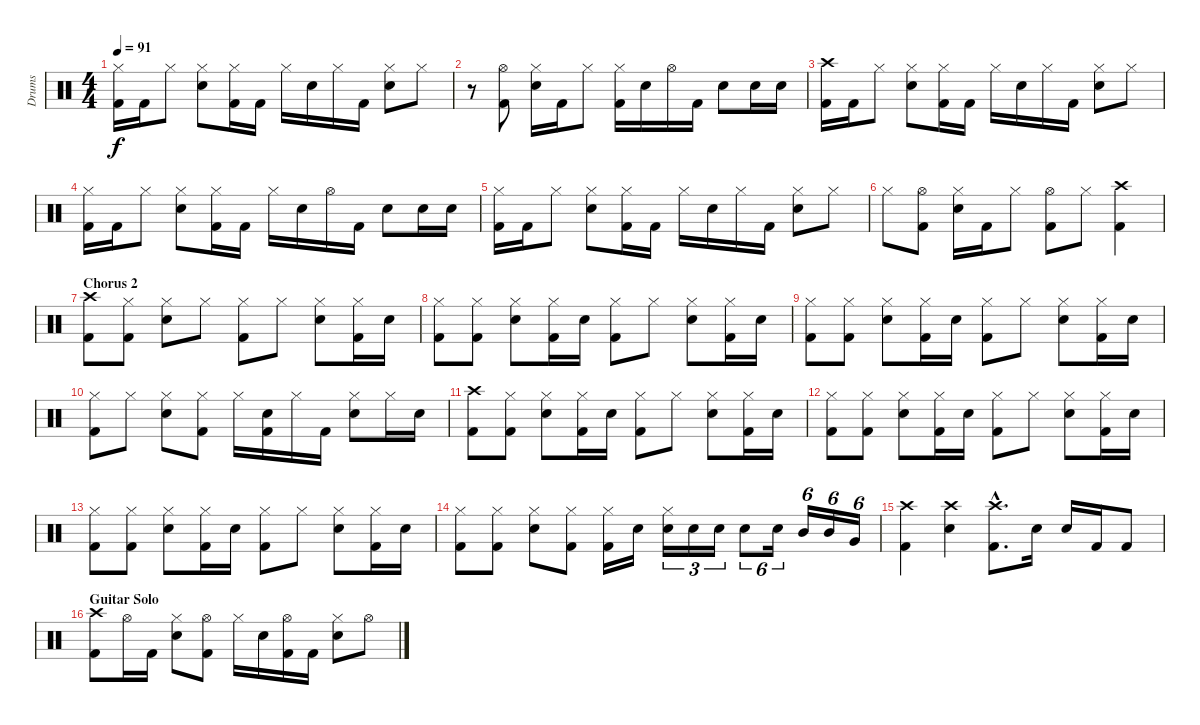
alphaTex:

\track ("Drums" "Drums") {instrument percussion}
\staff {score}
\articulation defaults
\ts (4 4)
\tempo 91
\clef neutral
\ks c
("Hi-Hat (closed)" "Kick (hit) 2").16{dy f} "Kick (hit) 2".16 "Hi-Hat (closed)".8 ("Hi-Hat (closed)" "Electric Snare (hit)").8 ("Hi-Hat (closed)" "Kick (hit) 2").16 "Kick (hit) 2".16 "Hi-Hat (closed)".16 "Electric Snare (hit)".16 "Hi-Hat (closed)".16 "Kick (hit) 2".16 ("Hi-Hat (closed)" "Electric Snare (hit)").8 "Hi-Hat (closed)".8 |
r.8 ("Hi-Hat (open)" "Kick (hit) 2").8 ("Hi-Hat (closed)" "Electric Snare (hit)").16 "Kick (hit) 2".16 "Hi-Hat (closed)".8 ("Hi-Hat (closed)" "Kick (hit) 2").16 "Electric Snare (hit)".16 "Hi-Hat (open)".16 "Kick (hit) 2".16 "Electric Snare (hit)".8 "Electric Snare (hit)".16 "Electric Snare (hit)".16 |
("Crash high (hit)" "Kick (hit) 2").16 "Kick (hit) 2".16 "Hi-Hat (closed)".8 ("Hi-Hat (closed)" "Electric Snare (hit)").8 ("Hi-Hat (closed)" "Kick (hit) 2").16 "Kick (hit) 2".16 "Hi-Hat (closed)".16 "Electric Snare (hit)".16 "Hi-Hat (closed)".16 "Kick (hit) 2".16 ("Hi-Hat (closed)" "Electric Snare (hit)").8 "Hi-Hat (closed)".8 |
("Hi-Hat (closed)" "Kick (hit) 2").16 "Kick (hit) 2".16 "Hi-Hat (closed)".8 ("Hi-Hat (closed)" "Electric Snare (hit)").8 ("Hi-Hat (closed)" "Kick (hit) 2").16 "Kick (hit) 2".16 "Hi-Hat (closed)".16 "Electric Snare (hit)".16 "Hi-Hat (open)".16 "Kick (hit) 2".16 "Electric Snare (hit)".8 "Electric Snare (hit)".16 "Electric Snare (hit)".16 |
("Hi-Hat (closed)" "Kick (hit) 2").16 "Kick (hit) 2".16 "Hi-Hat (closed)".8 ("Hi-Hat (closed)" "Electric Snare (hit)").8 ("Hi-Hat (closed)" "Kick (hit) 2").16 "Kick (hit) 2".16 "Hi-Hat (closed)".16 "Electric Snare (hit)".16 "Hi-Hat (closed)".16 "Kick (hit) 2".16 ("Hi-Hat (closed)" "Electric Snare (hit)").8 "Hi-Hat (closed)".8 |
"Hi-Hat (closed)".8 ("Hi-Hat (open)" "Kick (hit) 2").8 ("Hi-Hat (closed)" "Electric Snare (hit)").16 "Kick (hit) 2".16 "Hi-Hat (closed)".8 ("Hi-Hat (open)" "Kick (hit) 2").8 "Hi-Hat (closed)".8 ("Crash high (hit)" "Kick (hit) 2").4 |
\section ("" "Chorus 2")
("Crash high (hit)" "Kick (hit) 2").8 ("Hi-Hat (closed)" "Kick (hit) 2").8 ("Hi-Hat (closed)" "Electric Snare (hit)").8 "Hi-Hat (closed)".8 ("Hi-Hat (closed)" "Kick (hit) 2").8 "Hi-Hat (closed)".8 ("Hi-Hat (closed)" "Electric Snare (hit)").8 ("Hi-Hat (closed)" "Kick (hit) 2").16 "Electric Snare (hit)".16 |
("Hi-Hat (closed)" "Kick (hit) 2").8 ("Hi-Hat (closed)" "Kick (hit) 2").8 ("Hi-Hat (closed)" "Electric Snare (hit)").8 ("Hi-Hat (closed)" "Kick (hit) 2").16 "Electric Snare (hit)".16 ("Hi-Hat (closed)" "Kick (hit) 2").8 "Hi-Hat (closed)".8 ("Hi-Hat (closed)" "Electric Snare (hit)").8 ("Hi-Hat (closed)" "Kick (hit) 2").16 "Electric Snare (hit)".16 |
("Hi-Hat (closed)" "Kick (hit) 2").8 ("Hi-Hat (closed)" "Kick (hit) 2").8 ("Hi-Hat (closed)" "Electric Snare (hit)").8 ("Hi-Hat (closed)" "Kick (hit) 2").16 "Electric Snare (hit)".16 ("Hi-Hat (closed)" "Kick (hit) 2").8 "Hi-Hat (closed)".8 ("Hi-Hat (closed)" "Electric Snare (hit)").8 ("Hi-Hat (closed)" "Kick (hit) 2").16 "Electric Snare (hit)".16 |
("Hi-Hat (closed)" "Kick (hit) 2").8 "Hi-Hat (closed)".8 ("Hi-Hat (closed)" "Electric Snare (hit)").8 ("Hi-Hat (closed)" "Kick (hit) 2").8 "Hi-Hat (closed)".16 ("Electric Snare (hit)" "Kick (hit) 2").16 "Hi-Hat (closed)".16 "Kick (hit) 2".16 ("Hi-Hat (closed)" "Electric Snare (hit)").8 "Hi-Hat (closed)".16 "Electric Snare (hit)".16 |
("Crash high (hit)" "Kick (hit) 2").8 ("Hi-Hat (closed)" "Kick (hit) 2").8 ("Hi-Hat (closed)" "Electric Snare (hit)").8 ("Hi-Hat (closed)" "Kick (hit) 2").16 "Electric Snare (hit)".16 ("Hi-Hat (closed)" "Kick (hit) 2").8 "Hi-Hat (closed)".8 ("Hi-Hat (closed)" "Electric Snare (hit)").8 ("Hi-Hat (closed)" "Kick (hit) 2").16 "Electric Snare (hit)".16 |
("Hi-Hat (closed)" "Kick (hit) 2").8 ("Hi-Hat (closed)" "Kick (hit) 2").8 ("Hi-Hat (closed)" "Electric Snare (hit)").8 ("Hi-Hat (closed)" "Kick (hit) 2").16 "Electric Snare (hit)".16 ("Hi-Hat (closed)" "Kick (hit) 2").8 "Hi-Hat (closed)".8 ("Hi-Hat (closed)" "Electric Snare (hit)").8 ("Hi-Hat (closed)" "Kick (hit) 2").16 "Electric Snare (hit)".16 |
("Hi-Hat (closed)" "Kick (hit) 2").8 ("Hi-Hat (closed)" "Kick (hit) 2").8 ("Hi-Hat (closed)" "Electric Snare (hit)").8 ("Hi-Hat (closed)" "Kick (hit) 2").16 "Electric Snare (hit)".16 ("Hi-Hat (closed)" "Kick (hit) 2").8 "Hi-Hat (closed)".8 ("Hi-Hat (closed)" "Electric Snare (hit)").8 ("Hi-Hat (closed)" "Kick (hit) 2").16 "Electric Snare (hit)".16 |
("Hi-Hat (closed)" "Kick (hit) 2").8 ("Hi-Hat (closed)" "Kick (hit) 2").8 ("Hi-Hat (closed)" "Electric Snare (hit)").8 ("Hi-Hat (closed)" "Kick (hit) 2").8 ("Hi-Hat (closed)" "Kick (hit) 2").16 "Electric Snare (hit)".16 ("Hi-Hat (closed)" "Electric Snare (hit)").16{tu (3 2)} "Electric Snare (hit)".16{tu (3 2)} "Electric Snare (hit)".16{tu (3 2)} "Electric Snare (hit)".8{tu (6 4)} "Electric Snare (hit)".16{tu (6 4)} "Mid Tom (hit)".16{tu (6 4)} "Mid Tom (hit)".16{tu (6 4)} "Very Low Tom (hit)".16{tu (6 4)} |
("Crash high (hit)" "Kick (hit) 2").4 ("Crash high (hit)" "Electric Snare (hit)").4 ("Crash high (hit)"{hac} "Kick (hit) 2"{hac}).8{d} "Electric Snare (hit)".16 "Electric Snare (hit)".16 "Kick (hit) 2".16 "Kick (hit) 2".8 |
\section ("" "Guitar Solo")
("Crash high (hit)" "Kick (hit) 2").8 "Hi-Hat (open)".16 "Kick (hit) 2".16 ("Hi-Hat (closed)" "Electric Snare (hit)").8 ("Hi-Hat (open)" "Kick (hit) 2").8 "Hi-Hat (closed)".16 "Electric Snare (hit)".16 ("Hi-Hat (open)" "Kick (hit) 2").16 "Kick (hit) 2".16 ("Hi-Hat (closed)" "Electric Snare (hit)").8 "Hi-Hat (open)".8
